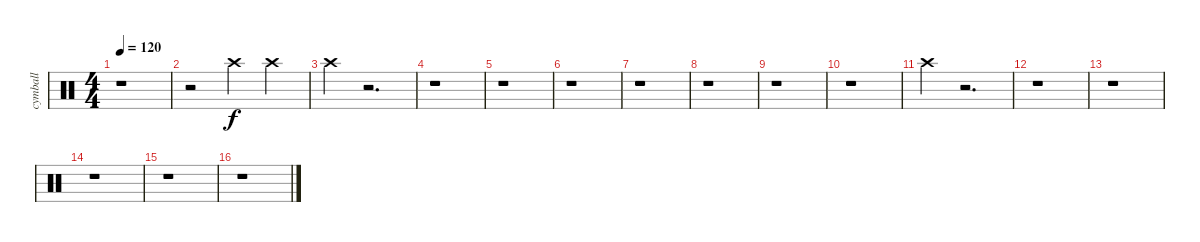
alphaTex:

\track ("cymball" "cymball") {instrument percussion}
\staff {score}
\articulation defaults
\ts (4 4)
\tempo 120
\clef neutral
\ks c
r.1{dy f} |
r.2 "Crash high (hit)".4 "Crash high (hit)".4 |
"Crash high (hit)".4 r.2{d} |
r.1 |
r.1 |
r.1 |
r.1 |
r.1 |
r.1 |
r.1 |
"Crash high (hit)".4 r.2{d} |
r.1 |
r.1 |
r.1 |
r.1 |
r.1
